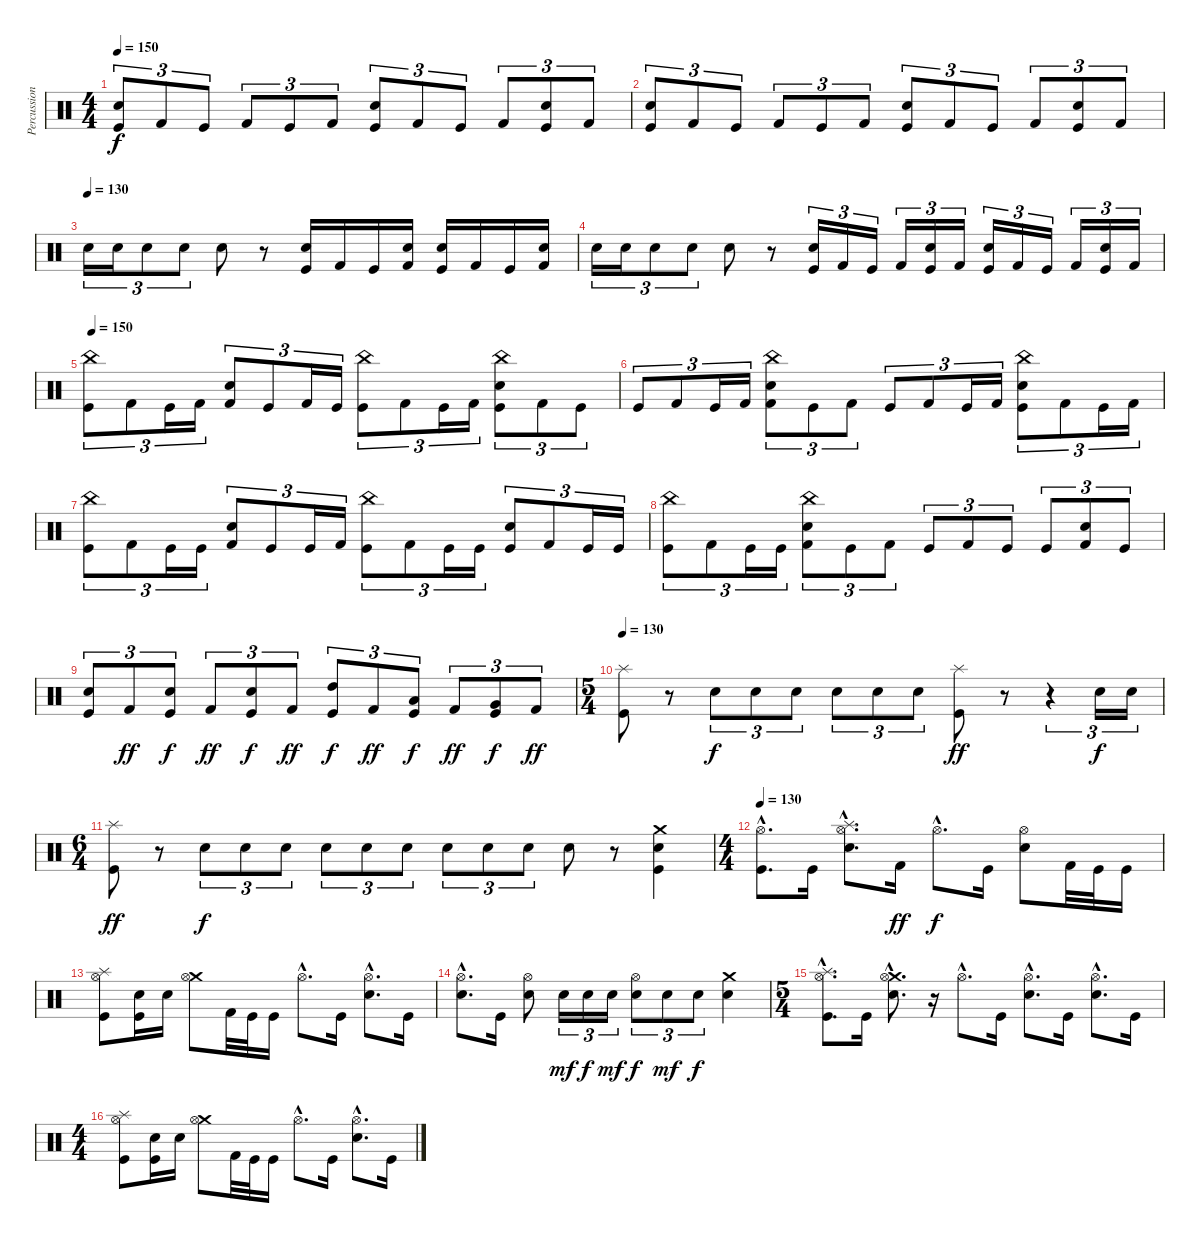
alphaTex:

\track ("Percussioni" "Percussion") {instrument percussion}
\staff {score}
\articulation defaults
\ts (4 4)
\tempo 150
\clef neutral
\ks c
("Snare (hit) 2" "Kick (hit)").8{tu (3 2) dy f} "Kick (hit) 2".8{tu (3 2)} "Kick (hit)".8{tu (3 2)} "Kick (hit) 2".8{tu (3 2)} "Kick (hit)".8{tu (3 2)} "Kick (hit) 2".8{tu (3 2)} ("Snare (hit) 2" "Kick (hit)").8{tu (3 2)} "Kick (hit) 2".8{tu (3 2)} "Kick (hit)".8{tu (3 2)} "Kick (hit) 2".8{tu (3 2)} ("Snare (hit) 2" "Kick (hit)").8{tu (3 2)} "Kick (hit) 2".8{tu (3 2)} |
("Snare (hit) 2" "Kick (hit)").8{tu (3 2)} "Kick (hit) 2".8{tu (3 2)} "Kick (hit)".8{tu (3 2)} "Kick (hit) 2".8{tu (3 2)} "Kick (hit)".8{tu (3 2)} "Kick (hit) 2".8{tu (3 2)} ("Snare (hit) 2" "Kick (hit)").8{tu (3 2)} "Kick (hit) 2".8{tu (3 2)} "Kick (hit)".8{tu (3 2)} "Kick (hit) 2".8{tu (3 2)} ("Snare (hit) 2" "Kick (hit)").8{tu (3 2)} "Kick (hit) 2".8{tu (3 2)} |
\tempo (130)
"Snare (hit) 2".16{tu (3 2)} "Snare (hit) 2".16{tu (3 2)} "Snare (hit) 2".8{tu (3 2)} "Snare (hit) 2".8{tu (3 2)} "Snare (hit) 2".8 r.8 ("Snare (hit) 2" "Kick (hit)").16 "Kick (hit) 2".16 "Kick (hit)".16 ("Snare (hit) 2" "Kick (hit) 2").16 ("Snare (hit) 2" "Kick (hit)").16 "Kick (hit) 2".16 "Kick (hit)".16 ("Snare (hit) 2" "Kick (hit) 2").16 |
"Snare (hit) 2".16{tu (3 2)} "Snare (hit) 2".16{tu (3 2)} "Snare (hit) 2".8{tu (3 2)} "Snare (hit) 2".8{tu (3 2)} "Snare (hit) 2".8 r.8 ("Snare (hit) 2" "Kick (hit)").16{tu (3 2)} "Kick (hit) 2".16{tu (3 2)} "Kick (hit)".16{tu (3 2)} "Kick (hit) 2".16{tu (3 2)} ("Snare (hit) 2" "Kick (hit)").16{tu (3 2)} "Kick (hit) 2".16{tu (3 2)} ("Snare (hit) 2" "Kick (hit)").16{tu (3 2)} "Kick (hit) 2".16{tu (3 2)} "Kick (hit)".16{tu (3 2)} "Kick (hit) 2".16{tu (3 2)} ("Snare (hit) 2" "Kick (hit)").16{tu (3 2)} "Kick (hit) 2".16{tu (3 2)} |
\tempo 150
("China (hit)" "Kick (hit)").8{tu (3 2)} "Kick (hit) 2".8{tu (3 2)} "Kick (hit)".16{tu (3 2)} "Kick (hit) 2".16{tu (3 2)} ("Snare (hit) 2" "Kick (hit) 2").8{tu (3 2)} "Kick (hit)".8{tu (3 2)} "Kick (hit) 2".16{tu (3 2)} "Kick (hit)".16{tu (3 2)} ("China (hit)" "Kick (hit)").8{tu (3 2)} "Kick (hit) 2".8{tu (3 2)} "Kick (hit)".16{tu (3 2)} "Kick (hit) 2".16{tu (3 2)} ("China (hit)" "Snare (hit) 2" "Kick (hit)").8{tu (3 2)} "Kick (hit) 2".8{tu (3 2)} "Kick (hit)".8{tu (3 2)} |
"Kick (hit)".8{tu (3 2)} "Kick (hit) 2".8{tu (3 2)} "Kick (hit)".16{tu (3 2)} "Kick (hit) 2".16{tu (3 2)} ("China (hit)" "Snare (hit) 2" "Kick (hit) 2").8{tu (3 2)} "Kick (hit)".8{tu (3 2)} "Kick (hit) 2".8{tu (3 2)} "Kick (hit)".8{tu (3 2)} "Kick (hit) 2".8{tu (3 2)} "Kick (hit)".16{tu (3 2)} "Kick (hit) 2".16{tu (3 2)} ("China (hit)" "Snare (hit) 2" "Kick (hit)").8{tu (3 2)} "Kick (hit) 2".8{tu (3 2)} "Kick (hit)".16{tu (3 2)} "Kick (hit) 2".16{tu (3 2)} |
("China (hit)" "Kick (hit)").8{tu (3 2)} "Kick (hit) 2".8{tu (3 2)} "Kick (hit)".16{tu (3 2)} "Kick (hit)".16{tu (3 2)} ("Snare (hit) 2" "Kick (hit) 2").8{tu (3 2)} "Kick (hit)".8{tu (3 2)} "Kick (hit)".16{tu (3 2)} "Kick (hit) 2".16{tu (3 2)} ("China (hit)" "Kick (hit)").8{tu (3 2)} "Kick (hit) 2".8{tu (3 2)} "Kick (hit)".16{tu (3 2)} "Kick (hit)".16{tu (3 2)} ("Snare (hit) 2" "Kick (hit)").8{tu (3 2)} "Kick (hit) 2".8{tu (3 2)} "Kick (hit)".16{tu (3 2)} "Kick (hit)".16{tu (3 2)} |
("China (hit)" "Kick (hit)").8{tu (3 2)} "Kick (hit) 2".8{tu (3 2)} "Kick (hit)".16{tu (3 2)} "Kick (hit)".16{tu (3 2)} ("China (hit)" "Snare (hit) 2" "Kick (hit) 2").8{tu (3 2)} "Kick (hit)".8{tu (3 2)} "Kick (hit) 2".8{tu (3 2)} "Kick (hit)".8{tu (3 2)} "Kick (hit) 2".8{tu (3 2)} "Kick (hit)".8{tu (3 2)} "Kick (hit)".8{tu (3 2)} ("Snare (hit) 2" "Kick (hit) 2").8{tu (3 2)} "Kick (hit)".8{tu (3 2)} |
("Snare (hit) 2" "Kick (hit)").8{tu (3 2)} "Kick (hit) 2".8{tu (3 2) dy ff} ("Snare (hit) 2" "Kick (hit)").8{tu (3 2) dy f} "Kick (hit) 2".8{tu (3 2) dy ff} ("Snare (hit) 2" "Kick (hit)").8{tu (3 2) dy f} "Kick (hit) 2".8{tu (3 2) dy ff} ("High Tom (hit)" "Kick (hit)").8{tu (3 2) dy f} "Kick (hit) 2".8{tu (3 2) dy ff} ("Low Tom (hit)" "Kick (hit)").8{tu (3 2) dy f} "Kick (hit) 2".8{tu (3 2) dy ff} ("Very Low Tom (hit)" "Kick (hit)").8{tu (3 2) dy f} "Kick (hit) 2".8{tu (3 2) dy ff} |
\ts (5 4)
\tempo 130
("Splash (hit)" "Kick (hit)").8 r.8 "Snare (hit) 2".8{tu (3 2) dy f} "Snare (hit) 2".8{tu (3 2)} "Snare (hit) 2".8{tu (3 2)} "Snare (hit) 2".8{tu (3 2)} "Snare (hit) 2".8{tu (3 2)} "Snare (hit) 2".8{tu (3 2)} ("Splash (hit)" "Kick (hit)").8{dy ff} r.8 r.4{tu (3 2)} "Snare (hit) 2".16{tu (3 2) dy f} "Snare (hit) 2".16{tu (3 2)} |
\ts (6 4)
("Splash (hit)" "Kick (hit)").8{dy ff} r.8 "Snare (hit) 2".8{tu (3 2) dy f} "Snare (hit) 2".8{tu (3 2)} "Snare (hit) 2".8{tu (3 2)} "Snare (hit) 2".8{tu (3 2)} "Snare (hit) 2".8{tu (3 2)} "Snare (hit) 2".8{tu (3 2)} "Snare (hit) 2".8{tu (3 2)} "Snare (hit) 2".8{tu (3 2)} "Snare (hit) 2".8{tu (3 2)} "Snare (hit) 2".8 r.8 ("Crash medium (hit)" "Snare (hit) 2" "Kick (hit)").4 |
\ts (4 4)
\tempo 130
("Hi-Hat (open)"{hac} "Kick (hit)"{hac}).8{d} "Kick (hit)".16 ("Splash (hit)"{hac} "Hi-Hat (open)"{hac} "Snare (hit) 2"{hac}).8{d} "Kick (hit) 2".16{dy ff} "Hi-Hat (open)"{hac}.8{d dy f} "Kick (hit)".16 ("Hi-Hat (open)" "Snare (hit) 2").8 "Kick (hit) 2".32 "Kick (hit)".32 "Kick (hit)".16 |
("Splash (hit)" "Hi-Hat (open)" "Kick (hit)").8 ("Snare (hit) 2" "Kick (hit)").16 "Snare (hit) 2".16 ("Crash medium (hit)" "Hi-Hat (open)").8 "Kick (hit) 2".32 "Kick (hit)".32 "Kick (hit)".16 "Hi-Hat (open)"{hac}.8{d} "Kick (hit)".16 ("Hi-Hat (open)"{hac} "Snare (hit) 2"{hac}).8{d} "Kick (hit)".16 |
("Hi-Hat (open)"{hac} "Snare (hit) 2"{hac}).8{d} "Kick (hit)".16 ("Hi-Hat (open)" "Snare (hit) 2").8 "Snare (hit) 2".16{tu (3 2) dy mf} "Snare (hit) 2".16{tu (3 2) dy f} "Snare (hit) 2".16{tu (3 2) dy mf} ("Hi-Hat (open)" "Snare (hit) 2").8{tu (3 2) dy f} "Snare (hit) 2".8{tu (3 2) dy mf} "Snare (hit) 2".8{tu (3 2) dy f} ("Crash medium (hit)" "Snare (hit) 2").4 |
\ts (5 4)
("Splash (hit)"{hac} "Hi-Hat (open)"{hac} "Kick (hit)"{hac}).8{d} "Kick (hit)".16 ("Crash medium (hit)"{hac} "Hi-Hat (open)"{hac} "Snare (hit) 2"{hac}).8{d} r.16 "Hi-Hat (open)"{hac}.8{d} "Kick (hit)".16 ("Hi-Hat (open)"{hac} "Snare (hit) 2"{hac}).8{d} "Kick (hit)".16 ("Hi-Hat (open)"{hac} "Snare (hit) 2"{hac}).8{d} "Kick (hit)".16 |
\ts (4 4)
("Splash (hit)" "Hi-Hat (open)" "Kick (hit)").8 ("Snare (hit) 2" "Kick (hit)").16 "Snare (hit) 2".16 ("Crash medium (hit)" "Hi-Hat (open)").8 "Kick (hit) 2".32 "Kick (hit)".32 "Kick (hit)".16 "Hi-Hat (open)"{hac}.8{d} "Kick (hit)".16 ("Hi-Hat (open)"{hac} "Snare (hit) 2"{hac}).8{d} "Kick (hit)".16
